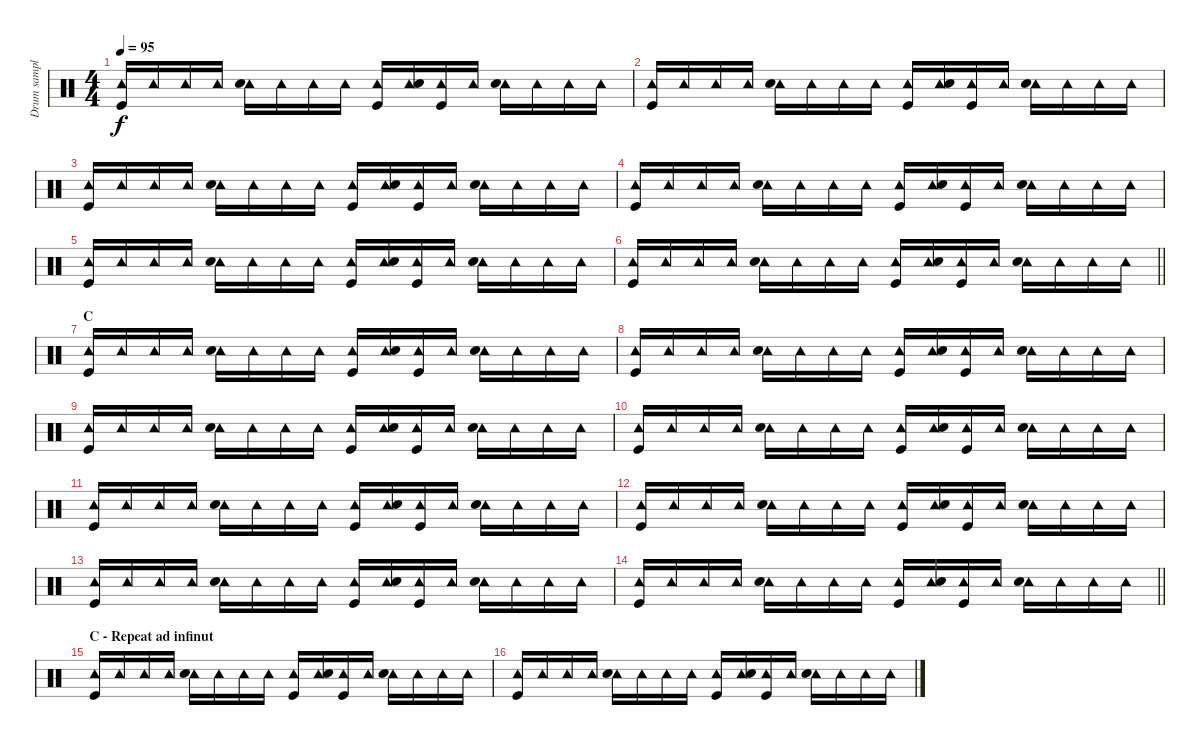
\track ("Drum sample" "Drum sampl") {instrument percussion}
\staff {score}
\articulation defaults
\ts (4 4)
\tempo 95
\clef neutral
\ks c
("Tambourine (hit)" "Kick (hit)").16{dy f} "Tambourine (hit)".16 "Tambourine (hit)".16 "Tambourine (hit)".16 ("Tambourine (hit)" "Electric Snare (hit)").16 "Tambourine (hit)".16 "Tambourine (hit)".16 "Tambourine (hit)".16 ("Tambourine (hit)" "Kick (hit)").16 ("Tambourine (hit)" "Electric Snare (hit)").16 ("Tambourine (hit)" "Kick (hit)").16 "Tambourine (hit)".16 ("Tambourine (hit)" "Electric Snare (hit)").16 "Tambourine (hit)".16 "Tambourine (hit)".16 "Tambourine (hit)".16 |
("Tambourine (hit)" "Kick (hit)").16 "Tambourine (hit)".16 "Tambourine (hit)".16 "Tambourine (hit)".16 ("Tambourine (hit)" "Electric Snare (hit)").16 "Tambourine (hit)".16 "Tambourine (hit)".16 "Tambourine (hit)".16 ("Tambourine (hit)" "Kick (hit)").16 ("Tambourine (hit)" "Electric Snare (hit)").16 ("Tambourine (hit)" "Kick (hit)").16 "Tambourine (hit)".16 ("Tambourine (hit)" "Electric Snare (hit)").16 "Tambourine (hit)".16 "Tambourine (hit)".16 "Tambourine (hit)".16 |
("Tambourine (hit)" "Kick (hit)").16 "Tambourine (hit)".16 "Tambourine (hit)".16 "Tambourine (hit)".16 ("Tambourine (hit)" "Electric Snare (hit)").16 "Tambourine (hit)".16 "Tambourine (hit)".16 "Tambourine (hit)".16 ("Tambourine (hit)" "Kick (hit)").16 ("Tambourine (hit)" "Electric Snare (hit)").16 ("Tambourine (hit)" "Kick (hit)").16 "Tambourine (hit)".16 ("Tambourine (hit)" "Electric Snare (hit)").16 "Tambourine (hit)".16 "Tambourine (hit)".16 "Tambourine (hit)".16 |
("Tambourine (hit)" "Kick (hit)").16 "Tambourine (hit)".16 "Tambourine (hit)".16 "Tambourine (hit)".16 ("Tambourine (hit)" "Electric Snare (hit)").16 "Tambourine (hit)".16 "Tambourine (hit)".16 "Tambourine (hit)".16 ("Tambourine (hit)" "Kick (hit)").16 ("Tambourine (hit)" "Electric Snare (hit)").16 ("Tambourine (hit)" "Kick (hit)").16 "Tambourine (hit)".16 ("Tambourine (hit)" "Electric Snare (hit)").16 "Tambourine (hit)".16 "Tambourine (hit)".16 "Tambourine (hit)".16 |
("Tambourine (hit)" "Kick (hit)").16 "Tambourine (hit)".16 "Tambourine (hit)".16 "Tambourine (hit)".16 ("Tambourine (hit)" "Electric Snare (hit)").16 "Tambourine (hit)".16 "Tambourine (hit)".16 "Tambourine (hit)".16 ("Tambourine (hit)" "Kick (hit)").16 ("Tambourine (hit)" "Electric Snare (hit)").16 ("Tambourine (hit)" "Kick (hit)").16 "Tambourine (hit)".16 ("Tambourine (hit)" "Electric Snare (hit)").16 "Tambourine (hit)".16 "Tambourine (hit)".16 "Tambourine (hit)".16 |
\barLineRight lightlight
("Tambourine (hit)" "Kick (hit)").16 "Tambourine (hit)".16 "Tambourine (hit)".16 "Tambourine (hit)".16 ("Tambourine (hit)" "Electric Snare (hit)").16 "Tambourine (hit)".16 "Tambourine (hit)".16 "Tambourine (hit)".16 ("Tambourine (hit)" "Kick (hit)").16 ("Tambourine (hit)" "Electric Snare (hit)").16 ("Tambourine (hit)" "Kick (hit)").16 "Tambourine (hit)".16 ("Tambourine (hit)" "Electric Snare (hit)").16 "Tambourine (hit)".16 "Tambourine (hit)".16 "Tambourine (hit)".16 |
\section ("" "C")
("Tambourine (hit)" "Kick (hit)").16 "Tambourine (hit)".16 "Tambourine (hit)".16 "Tambourine (hit)".16 ("Tambourine (hit)" "Electric Snare (hit)").16 "Tambourine (hit)".16 "Tambourine (hit)".16 "Tambourine (hit)".16 ("Tambourine (hit)" "Kick (hit)").16 ("Tambourine (hit)" "Electric Snare (hit)").16 ("Tambourine (hit)" "Kick (hit)").16 "Tambourine (hit)".16 ("Tambourine (hit)" "Electric Snare (hit)").16 "Tambourine (hit)".16 "Tambourine (hit)".16 "Tambourine (hit)".16 |
("Tambourine (hit)" "Kick (hit)").16 "Tambourine (hit)".16 "Tambourine (hit)".16 "Tambourine (hit)".16 ("Tambourine (hit)" "Electric Snare (hit)").16 "Tambourine (hit)".16 "Tambourine (hit)".16 "Tambourine (hit)".16 ("Tambourine (hit)" "Kick (hit)").16 ("Tambourine (hit)" "Electric Snare (hit)").16 ("Tambourine (hit)" "Kick (hit)").16 "Tambourine (hit)".16 ("Tambourine (hit)" "Electric Snare (hit)").16 "Tambourine (hit)".16 "Tambourine (hit)".16 "Tambourine (hit)".16 |
("Tambourine (hit)" "Kick (hit)").16 "Tambourine (hit)".16 "Tambourine (hit)".16 "Tambourine (hit)".16 ("Tambourine (hit)" "Electric Snare (hit)").16 "Tambourine (hit)".16 "Tambourine (hit)".16 "Tambourine (hit)".16 ("Tambourine (hit)" "Kick (hit)").16 ("Tambourine (hit)" "Electric Snare (hit)").16 ("Tambourine (hit)" "Kick (hit)").16 "Tambourine (hit)".16 ("Tambourine (hit)" "Electric Snare (hit)").16 "Tambourine (hit)".16 "Tambourine (hit)".16 "Tambourine (hit)".16 |
("Tambourine (hit)" "Kick (hit)").16 "Tambourine (hit)".16 "Tambourine (hit)".16 "Tambourine (hit)".16 ("Tambourine (hit)" "Electric Snare (hit)").16 "Tambourine (hit)".16 "Tambourine (hit)".16 "Tambourine (hit)".16 ("Tambourine (hit)" "Kick (hit)").16 ("Tambourine (hit)" "Electric Snare (hit)").16 ("Tambourine (hit)" "Kick (hit)").16 "Tambourine (hit)".16 ("Tambourine (hit)" "Electric Snare (hit)").16 "Tambourine (hit)".16 "Tambourine (hit)".16 "Tambourine (hit)".16 |
("Tambourine (hit)" "Kick (hit)").16 "Tambourine (hit)".16 "Tambourine (hit)".16 "Tambourine (hit)".16 ("Tambourine (hit)" "Electric Snare (hit)").16 "Tambourine (hit)".16 "Tambourine (hit)".16 "Tambourine (hit)".16 ("Tambourine (hit)" "Kick (hit)").16 ("Tambourine (hit)" "Electric Snare (hit)").16 ("Tambourine (hit)" "Kick (hit)").16 "Tambourine (hit)".16 ("Tambourine (hit)" "Electric Snare (hit)").16 "Tambourine (hit)".16 "Tambourine (hit)".16 "Tambourine (hit)".16 |
("Tambourine (hit)" "Kick (hit)").16 "Tambourine (hit)".16 "Tambourine (hit)".16 "Tambourine (hit)".16 ("Tambourine (hit)" "Electric Snare (hit)").16 "Tambourine (hit)".16 "Tambourine (hit)".16 "Tambourine (hit)".16 ("Tambourine (hit)" "Kick (hit)").16 ("Tambourine (hit)" "Electric Snare (hit)").16 ("Tambourine (hit)" "Kick (hit)").16 "Tambourine (hit)".16 ("Tambourine (hit)" "Electric Snare (hit)").16 "Tambourine (hit)".16 "Tambourine (hit)".16 "Tambourine (hit)".16 |
("Tambourine (hit)" "Kick (hit)").16 "Tambourine (hit)".16 "Tambourine (hit)".16 "Tambourine (hit)".16 ("Tambourine (hit)" "Electric Snare (hit)").16 "Tambourine (hit)".16 "Tambourine (hit)".16 "Tambourine (hit)".16 ("Tambourine (hit)" "Kick (hit)").16 ("Tambourine (hit)" "Electric Snare (hit)").16 ("Tambourine (hit)" "Kick (hit)").16 "Tambourine (hit)".16 ("Tambourine (hit)" "Electric Snare (hit)").16 "Tambourine (hit)".16 "Tambourine (hit)".16 "Tambourine (hit)".16 |
\barLineRight lightlight
("Tambourine (hit)" "Kick (hit)").16 "Tambourine (hit)".16 "Tambourine (hit)".16 "Tambourine (hit)".16 ("Tambourine (hit)" "Electric Snare (hit)").16 "Tambourine (hit)".16 "Tambourine (hit)".16 "Tambourine (hit)".16 ("Tambourine (hit)" "Kick (hit)").16 ("Tambourine (hit)" "Electric Snare (hit)").16 ("Tambourine (hit)" "Kick (hit)").16 "Tambourine (hit)".16 ("Tambourine (hit)" "Electric Snare (hit)").16 "Tambourine (hit)".16 "Tambourine (hit)".16 "Tambourine (hit)".16 |
\section ("" "C - Repeat ad infinut")
("Tambourine (hit)" "Kick (hit)").16 "Tambourine (hit)".16 "Tambourine (hit)".16 "Tambourine (hit)".16 ("Tambourine (hit)" "Electric Snare (hit)").16 "Tambourine (hit)".16 "Tambourine (hit)".16 "Tambourine (hit)".16 ("Tambourine (hit)" "Kick (hit)").16 ("Tambourine (hit)" "Electric Snare (hit)").16 ("Tambourine (hit)" "Kick (hit)").16 "Tambourine (hit)".16 ("Tambourine (hit)" "Electric Snare (hit)").16 "Tambourine (hit)".16 "Tambourine (hit)".16 "Tambourine (hit)".16 |
("Tambourine (hit)" "Kick (hit)").16 "Tambourine (hit)".16 "Tambourine (hit)".16 "Tambourine (hit)".16 ("Tambourine (hit)" "Electric Snare (hit)").16 "Tambourine (hit)".16 "Tambourine (hit)".16 "Tambourine (hit)".16 ("Tambourine (hit)" "Kick (hit)").16 ("Tambourine (hit)" "Electric Snare (hit)").16 ("Tambourine (hit)" "Kick (hit)").16 "Tambourine (hit)".16 ("Tambourine (hit)" "Electric Snare (hit)").16 "Tambourine (hit)".16 "Tambourine (hit)".16 "Tambourine (hit)".16
